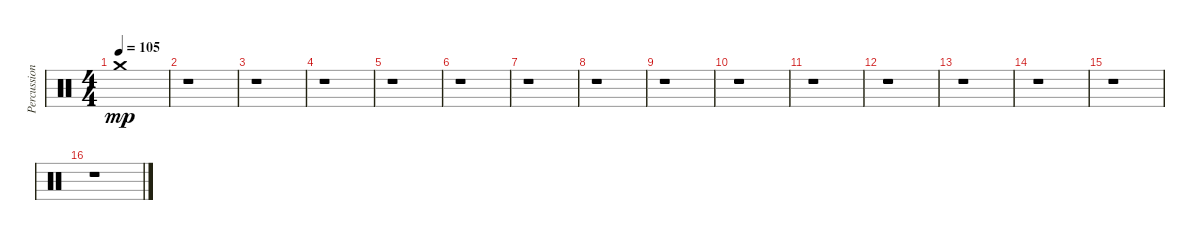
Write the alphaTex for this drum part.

\track ("Percussion" "Percussion") {instrument percussion}
\staff {score}
\articulation defaults
\ts (4 4)
\tempo 105
\clef neutral
\ks c "Crash medium (hit)".1{dy mp}
|
r.1 |
r.1 |
r.1 |
r.1 |
r.1 |
r.1 |
r.1 |
r.1 |
r.1 |
r.1 |
r.1 |
r.1 |
r.1 |
r.1 |
r.1
